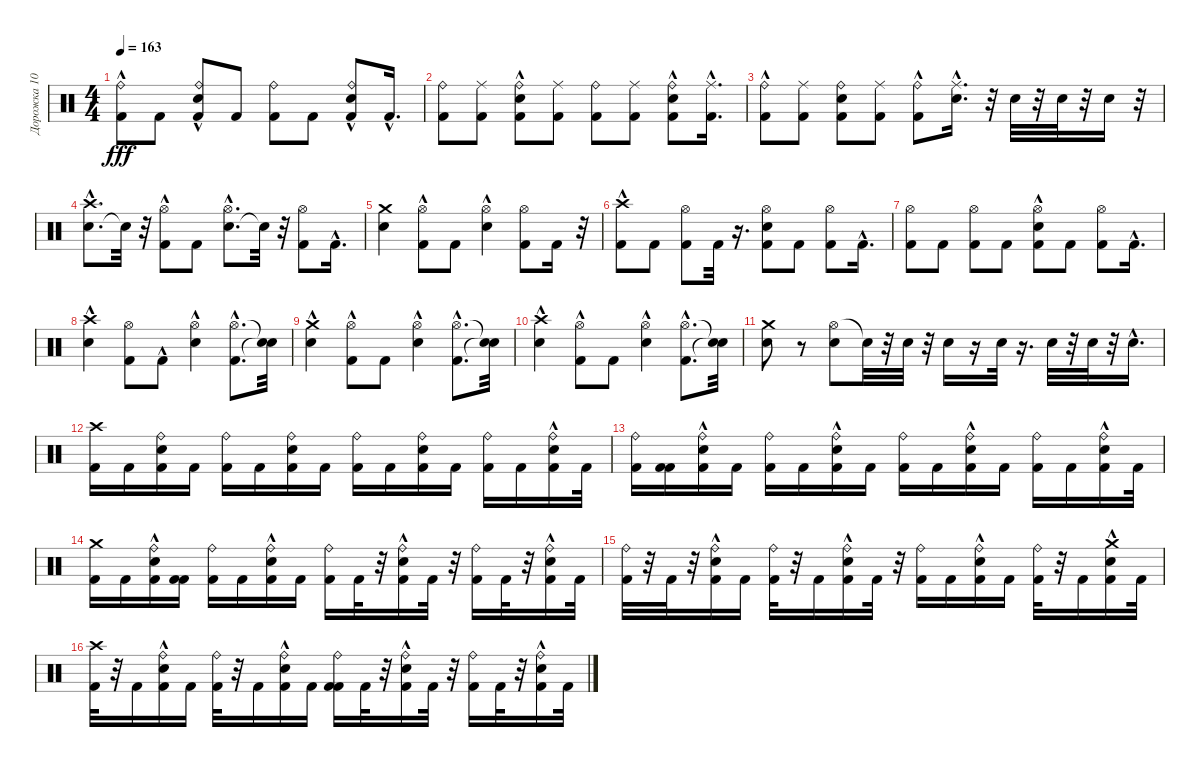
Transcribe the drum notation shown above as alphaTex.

\track ("Дорожка 10" "Дорожка 10") {instrument percussion}
\staff {score}
\articulation defaults
\ts (4 4)
\tempo 163
\clef neutral
\ks c
("Kick (hit) 2" "Ride (bell)"{hac}).8{dy fff} "Kick (hit) 2".8 ("Kick (hit) 2" "Electric Snare (hit)"{hac} "Ride (bell)"{hac}).8 "Kick (hit) 2".8 ("Kick (hit) 2" "Ride (bell)").8 "Kick (hit) 2".8 ("Kick (hit) 2" "Electric Snare (hit)"{hac} "Ride (bell)").8 "Kick (hit) 2"{hac}.16{d} |
("Kick (hit) 2" "Ride (bell)").8 ("Kick (hit) 2" "Ride (middle)").8 ("Kick (hit) 2" "Electric Snare (hit)"{hac} "Ride (bell)").8 ("Kick (hit) 2" "Ride (middle)").8 ("Kick (hit) 2" "Ride (bell)").8 ("Kick (hit) 2" "Ride (middle)").8 ("Kick (hit) 2" "Electric Snare (hit)"{hac} "Ride (bell)").8 ("Kick (hit) 2"{hac} "Ride (middle)"{hac}).16{d} |
("Kick (hit) 2" "Ride (bell)"{hac}).8 ("Ride (middle)" "Kick (hit) 2").8 ("Kick (hit) 2" "Electric Snare (hit)" "Ride (bell)").8 ("Kick (hit) 2" "Ride (middle)").8 ("Kick (hit) 2"{hac} "Ride (bell)").8 ("Ride (middle)"{hac} "Electric Snare (hit)").16{d} r.32 "Electric Snare (hit)".32 r.32 "Electric Snare (hit)".32 r.32 "Electric Snare (hit)".16 r.32 |
("Electric Snare (hit)"{hac} "Crash high (hit)").8{d} "Snare (hit)"{t}.32 r.32 ("Kick (hit) 2"{hac} "Hi-Hat (open)").8 "Kick (hit) 2".8 ("Electric Snare (hit)"{hac} "Hi-Hat (open)"{hac}).8{d} "Snare (hit)"{t}.32 r.32 ("Hi-Hat (open)" "Kick (hit) 2").8 "Kick (hit) 2"{hac}.16{d} |
("Electric Snare (hit)" "Crash medium (hit)").4 ("Hi-Hat (open)"{hac} "Kick (hit) 2").8 "Kick (hit) 2".8 ("Hi-Hat (open)"{hac} "Electric Snare (hit)").4 ("Hi-Hat (open)" "Kick (hit) 2").8 "Kick (hit) 2".16 r.32 |
("Kick (hit) 2"{hac} "Crash high (hit)").8 "Kick (hit) 2".8 ("Kick (hit) 2" "Hi-Hat (open)").8 "Kick (hit) 2".32 r.16{d} ("Kick (hit) 2" "Electric Snare (hit)" "Hi-Hat (open)").8 "Kick (hit) 2".8 ("Kick (hit) 2" "Hi-Hat (open)").8 "Kick (hit) 2"{hac}.16{d} |
("Hi-Hat (open)" "Kick (hit) 2").8 "Kick (hit) 2".8 ("Hi-Hat (open)" "Kick (hit) 2").8 "Kick (hit) 2".8 ("Hi-Hat (open)" "Kick (hit) 2" "Electric Snare (hit)"{hac}).8 "Kick (hit) 2".8 ("Hi-Hat (open)" "Kick (hit) 2").8 "Kick (hit) 2"{hac}.16{d} |
("Electric Snare (hit)"{hac} "Crash high (hit)").4 ("Kick (hit) 2" "Hi-Hat (open)").8 "Kick (hit) 2"{hac}.8 ("Electric Snare (hit)"{hac} "Hi-Hat (open)").4 ("Hi-Hat (open)"{hac} "Kick (hit) 2"{hac}).8{d} ("Snare (hit)"{t} "Snare (hit)"{t}).32 |
("Electric Snare (hit)"{hac} "Crash medium (hit)"{hac}).4 ("Kick (hit) 2" "Hi-Hat (open)"{hac}).8 "Kick (hit) 2".8 ("Hi-Hat (open)"{hac} "Electric Snare (hit)"{hac}).4 ("Kick (hit) 2"{hac} "Hi-Hat (open)"{hac}).8{d} ("Snare (hit)"{t} "Snare (hit)"{t}).32 |
("Electric Snare (hit)"{hac} "Crash high (hit)").4 ("Hi-Hat (open)" "Kick (hit) 2"{hac}).8 "Kick (hit) 2".8 ("Hi-Hat (open)" "Electric Snare (hit)"{hac}).4 ("Hi-Hat (open)"{hac} "Kick (hit) 2"{hac}).8{d} ("Snare (hit)"{t} "Snare (hit)"{t}).32 |
("Electric Snare (hit)" "Crash medium (hit)").8 r.8 ("Hi-Hat (open)" "Electric Snare (hit)").8 "Snare (hit)"{t}.32 r.32 "Electric Snare (hit)".32 r.32 "Electric Snare (hit)".16 r.16 "Electric Snare (hit)".32 r.16{d} "Electric Snare (hit)".32 r.32 "Electric Snare (hit)".32 r.32 "Electric Snare (hit)"{hac}.16{d} |
("Kick (hit) 2" "Crash high (hit)").16 "Kick (hit) 2".16 ("Kick (hit) 2" "Electric Snare (hit)" "Ride (bell)").16 "Kick (hit) 2".16 ("Kick (hit) 2" "Ride (bell)").16 "Kick (hit) 2".16 ("Kick (hit) 2" "Electric Snare (hit)" "Ride (bell)").16 "Kick (hit) 2".16 ("Kick (hit) 2" "Ride (bell)").16 "Kick (hit) 2".16 ("Kick (hit) 2" "Electric Snare (hit)" "Ride (bell)").16 "Kick (hit) 2".16 ("Kick (hit) 2" "Ride (bell)").16 "Kick (hit) 2".16 ("Kick (hit) 2" "Electric Snare (hit)"{hac} "Ride (bell)").16 "Kick (hit) 2".32 |
("Kick (hit) 2" "Ride (bell)").16 ("Kick (hit) 2" "Kick (hit) 2").16 ("Kick (hit) 2" "Electric Snare (hit)"{hac} "Ride (bell)").16 "Kick (hit) 2".16 ("Kick (hit) 2" "Ride (bell)").16 "Kick (hit) 2".16 ("Kick (hit) 2" "Electric Snare (hit)"{hac} "Ride (bell)").16 "Kick (hit) 2".16 ("Kick (hit) 2" "Ride (bell)").16 "Kick (hit) 2".16 ("Kick (hit) 2" "Electric Snare (hit)"{hac} "Ride (bell)").16 "Kick (hit) 2".16 ("Kick (hit) 2" "Ride (bell)").16 "Kick (hit) 2".16 ("Kick (hit) 2" "Electric Snare (hit)"{hac} "Ride (bell)").16 "Kick (hit) 2".32 |
("Kick (hit) 2" "Crash medium (hit)").16 "Kick (hit) 2".16 ("Kick (hit) 2" "Electric Snare (hit)"{hac} "Ride (bell)").16 ("Kick (hit) 2" "Kick (hit) 2").16 ("Kick (hit) 2" "Ride (bell)").16 "Kick (hit) 2".16 ("Kick (hit) 2" "Electric Snare (hit)"{hac} "Ride (bell)").16 "Kick (hit) 2".16 ("Kick (hit) 2" "Ride (bell)").16 "Kick (hit) 2".32 r.32 ("Kick (hit) 2" "Electric Snare (hit)"{hac} "Ride (bell)").16 "Kick (hit) 2".32 r.32 ("Kick (hit) 2" "Ride (bell)").16 "Kick (hit) 2".32 r.32 ("Kick (hit) 2" "Electric Snare (hit)"{hac} "Ride (bell)").16 "Kick (hit) 2".32 |
("Kick (hit) 2" "Ride (bell)").32 r.32 "Kick (hit) 2".32 r.32 ("Kick (hit) 2" "Electric Snare (hit)"{hac} "Ride (bell)").16 "Kick (hit) 2".16 ("Kick (hit) 2" "Ride (bell)").32 r.32 "Kick (hit) 2".16 ("Kick (hit) 2" "Electric Snare (hit)"{hac} "Ride (bell)").16 "Kick (hit) 2".32 r.32 ("Kick (hit) 2" "Ride (bell)").16 "Kick (hit) 2".16 ("Kick (hit) 2" "Electric Snare (hit)"{hac} "Ride (bell)").16 "Kick (hit) 2".16 ("Kick (hit) 2" "Ride (bell)").32 r.32 "Kick (hit) 2".16 ("Kick (hit) 2" "Electric Snare (hit)"{hac} "Crash medium (hit)").16 "Kick (hit) 2".32 |
("Kick (hit) 2" "Crash high (hit)").32 r.32 "Kick (hit) 2".16 ("Kick (hit) 2" "Electric Snare (hit)"{hac} "Ride (bell)").16 "Kick (hit) 2".16 ("Kick (hit) 2" "Ride (bell)").32 r.32 "Kick (hit) 2".16 ("Kick (hit) 2" "Electric Snare (hit)"{hac} "Ride (bell)").16 "Kick (hit) 2".16 ("Kick (hit) 2" "Kick (hit) 2" "Ride (bell)").16 "Kick (hit) 2".32 r.32 ("Kick (hit) 2" "Electric Snare (hit)"{hac} "Ride (bell)").16 "Kick (hit) 2".32 r.32 ("Kick (hit) 2" "Ride (bell)").16 "Kick (hit) 2".32 r.32 ("Kick (hit) 2" "Electric Snare (hit)"{hac} "Ride (bell)").16 "Kick (hit) 2".32
